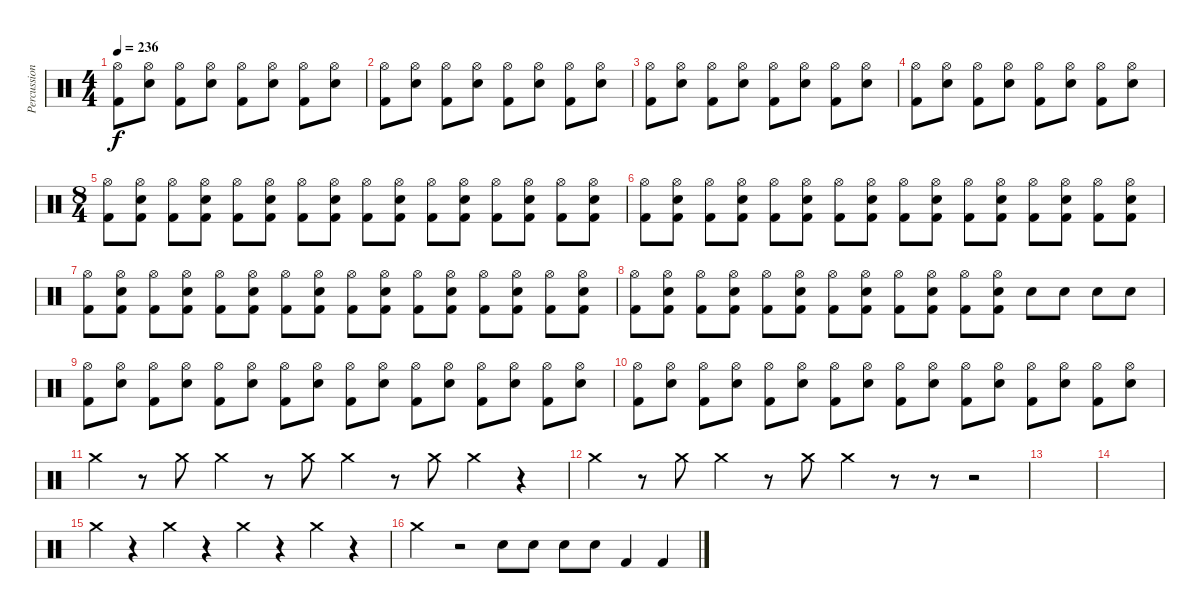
\track ("Percussion" "Percussion") {instrument percussion}
\staff {score}
\articulation defaults
\ts (4 4)
\tempo 236
\clef neutral
\ks c
("Hi-Hat (open)" "Kick (hit) 2").8{dy f} ("Hi-Hat (open)" "Snare (hit) 2").8 ("Hi-Hat (open)" "Kick (hit) 2").8 ("Hi-Hat (open)" "Snare (hit) 2").8 ("Hi-Hat (open)" "Kick (hit) 2").8 ("Hi-Hat (open)" "Snare (hit) 2").8 ("Hi-Hat (open)" "Kick (hit) 2").8 ("Hi-Hat (open)" "Snare (hit) 2").8 |
("Hi-Hat (open)" "Kick (hit) 2").8 ("Hi-Hat (open)" "Snare (hit) 2").8 ("Hi-Hat (open)" "Kick (hit) 2").8 ("Hi-Hat (open)" "Snare (hit) 2").8 ("Hi-Hat (open)" "Kick (hit) 2").8 ("Hi-Hat (open)" "Snare (hit) 2").8 ("Hi-Hat (open)" "Kick (hit) 2").8 ("Hi-Hat (open)" "Snare (hit) 2").8 |
("Hi-Hat (open)" "Kick (hit) 2").8 ("Hi-Hat (open)" "Snare (hit) 2").8 ("Hi-Hat (open)" "Kick (hit) 2").8 ("Hi-Hat (open)" "Snare (hit) 2").8 ("Hi-Hat (open)" "Kick (hit) 2").8 ("Hi-Hat (open)" "Snare (hit) 2").8 ("Hi-Hat (open)" "Kick (hit) 2").8 ("Hi-Hat (open)" "Snare (hit) 2").8 |
("Hi-Hat (open)" "Kick (hit) 2").8 ("Hi-Hat (open)" "Snare (hit) 2").8 ("Hi-Hat (open)" "Kick (hit) 2").8 ("Hi-Hat (open)" "Snare (hit) 2").8 ("Hi-Hat (open)" "Kick (hit) 2").8 ("Hi-Hat (open)" "Snare (hit) 2").8 ("Hi-Hat (open)" "Kick (hit) 2").8 ("Hi-Hat (open)" "Snare (hit) 2").8 |
\ts (8 4)
("Hi-Hat (open)" "Kick (hit) 2").8 ("Hi-Hat (open)" "Snare (hit) 2" "Kick (hit) 2").8 ("Hi-Hat (open)" "Kick (hit) 2").8 ("Hi-Hat (open)" "Snare (hit) 2" "Kick (hit) 2").8 ("Hi-Hat (open)" "Kick (hit) 2").8 ("Hi-Hat (open)" "Snare (hit) 2" "Kick (hit) 2").8 ("Hi-Hat (open)" "Kick (hit) 2").8 ("Hi-Hat (open)" "Snare (hit) 2" "Kick (hit) 2").8 ("Hi-Hat (open)" "Kick (hit) 2").8 ("Hi-Hat (open)" "Snare (hit) 2" "Kick (hit) 2").8 ("Hi-Hat (open)" "Kick (hit) 2").8 ("Hi-Hat (open)" "Snare (hit) 2" "Kick (hit) 2").8 ("Hi-Hat (open)" "Kick (hit) 2").8 ("Hi-Hat (open)" "Snare (hit) 2" "Kick (hit) 2").8 ("Hi-Hat (open)" "Kick (hit) 2").8 ("Hi-Hat (open)" "Snare (hit) 2" "Kick (hit) 2").8 |
("Hi-Hat (open)" "Kick (hit) 2").8 ("Hi-Hat (open)" "Snare (hit) 2" "Kick (hit) 2").8 ("Hi-Hat (open)" "Kick (hit) 2").8 ("Hi-Hat (open)" "Snare (hit) 2" "Kick (hit) 2").8 ("Hi-Hat (open)" "Kick (hit) 2").8 ("Hi-Hat (open)" "Snare (hit) 2" "Kick (hit) 2").8 ("Hi-Hat (open)" "Kick (hit) 2").8 ("Hi-Hat (open)" "Snare (hit) 2" "Kick (hit) 2").8 ("Hi-Hat (open)" "Kick (hit) 2").8 ("Hi-Hat (open)" "Snare (hit) 2" "Kick (hit) 2").8 ("Hi-Hat (open)" "Kick (hit) 2").8 ("Hi-Hat (open)" "Snare (hit) 2" "Kick (hit) 2").8 ("Hi-Hat (open)" "Kick (hit) 2").8 ("Hi-Hat (open)" "Snare (hit) 2" "Kick (hit) 2").8 ("Hi-Hat (open)" "Kick (hit) 2").8 ("Hi-Hat (open)" "Snare (hit) 2" "Kick (hit) 2").8 |
("Hi-Hat (open)" "Kick (hit) 2").8 ("Hi-Hat (open)" "Snare (hit) 2" "Kick (hit) 2").8 ("Hi-Hat (open)" "Kick (hit) 2").8 ("Hi-Hat (open)" "Snare (hit) 2" "Kick (hit) 2").8 ("Hi-Hat (open)" "Kick (hit) 2").8 ("Hi-Hat (open)" "Snare (hit) 2" "Kick (hit) 2").8 ("Hi-Hat (open)" "Kick (hit) 2").8 ("Hi-Hat (open)" "Snare (hit) 2" "Kick (hit) 2").8 ("Hi-Hat (open)" "Kick (hit) 2").8 ("Hi-Hat (open)" "Snare (hit) 2" "Kick (hit) 2").8 ("Hi-Hat (open)" "Kick (hit) 2").8 ("Hi-Hat (open)" "Snare (hit) 2" "Kick (hit) 2").8 ("Hi-Hat (open)" "Kick (hit) 2").8 ("Hi-Hat (open)" "Snare (hit) 2" "Kick (hit) 2").8 ("Hi-Hat (open)" "Kick (hit) 2").8 ("Hi-Hat (open)" "Snare (hit) 2" "Kick (hit) 2").8 |
("Hi-Hat (open)" "Kick (hit) 2").8 ("Hi-Hat (open)" "Snare (hit) 2" "Kick (hit) 2").8 ("Hi-Hat (open)" "Kick (hit) 2").8 ("Hi-Hat (open)" "Snare (hit) 2" "Kick (hit) 2").8 ("Hi-Hat (open)" "Kick (hit) 2").8 ("Hi-Hat (open)" "Snare (hit) 2" "Kick (hit) 2").8 ("Hi-Hat (open)" "Kick (hit) 2").8 ("Hi-Hat (open)" "Snare (hit) 2" "Kick (hit) 2").8 ("Hi-Hat (open)" "Kick (hit) 2").8 ("Hi-Hat (open)" "Snare (hit) 2" "Kick (hit) 2").8 ("Hi-Hat (open)" "Kick (hit) 2").8 ("Hi-Hat (open)" "Snare (hit) 2" "Kick (hit) 2").8 "Snare (hit) 2".8 "Snare (hit) 2".8 "Snare (hit) 2".8 "Snare (hit) 2".8 |
("Hi-Hat (open)" "Kick (hit) 2").8 ("Hi-Hat (open)" "Snare (hit) 2").8 ("Hi-Hat (open)" "Kick (hit) 2").8 ("Hi-Hat (open)" "Snare (hit) 2").8 ("Hi-Hat (open)" "Kick (hit) 2").8 ("Hi-Hat (open)" "Snare (hit) 2").8 ("Hi-Hat (open)" "Kick (hit) 2").8 ("Hi-Hat (open)" "Snare (hit) 2").8 ("Hi-Hat (open)" "Kick (hit) 2").8 ("Hi-Hat (open)" "Snare (hit) 2").8 ("Hi-Hat (open)" "Kick (hit) 2").8 ("Hi-Hat (open)" "Snare (hit) 2").8 ("Hi-Hat (open)" "Kick (hit) 2").8 ("Hi-Hat (open)" "Snare (hit) 2").8 ("Hi-Hat (open)" "Kick (hit) 2").8 ("Hi-Hat (open)" "Snare (hit) 2").8 |
("Hi-Hat (open)" "Kick (hit) 2").8 ("Hi-Hat (open)" "Snare (hit) 2").8 ("Hi-Hat (open)" "Kick (hit) 2").8 ("Hi-Hat (open)" "Snare (hit) 2").8 ("Hi-Hat (open)" "Kick (hit) 2").8 ("Hi-Hat (open)" "Snare (hit) 2").8 ("Hi-Hat (open)" "Kick (hit) 2").8 ("Hi-Hat (open)" "Snare (hit) 2").8 ("Hi-Hat (open)" "Kick (hit) 2").8 ("Hi-Hat (open)" "Snare (hit) 2").8 ("Hi-Hat (open)" "Kick (hit) 2").8 ("Hi-Hat (open)" "Snare (hit) 2").8 ("Hi-Hat (open)" "Kick (hit) 2").8 ("Hi-Hat (open)" "Snare (hit) 2").8 ("Hi-Hat (open)" "Kick (hit) 2").8 ("Hi-Hat (open)" "Snare (hit) 2").8 |
"Crash medium (hit)".4 r.8 "Crash medium (hit)".8 "Crash medium (hit)".4 r.8 "Crash medium (hit)".8 "Crash medium (hit)".4 r.8 "Crash medium (hit)".8 "Crash medium (hit)".4 r.4 |
"Crash medium (hit)".4 r.8 "Crash medium (hit)".8 "Crash medium (hit)".4 r.8 "Crash medium (hit)".8 "Crash medium (hit)".4 r.8 r.8 r.2 |
|
|
"Crash medium (hit)".4 r.4 "Crash medium (hit)".4 r.4 "Crash medium (hit)".4 r.4 "Crash medium (hit)".4 r.4 |
"Crash medium (hit)".2 r.2 "Snare (hit) 2".8 "Snare (hit) 2".8 "Snare (hit) 2".8 "Snare (hit) 2".8 "Kick (hit) 2".4 "Kick (hit) 2".4
